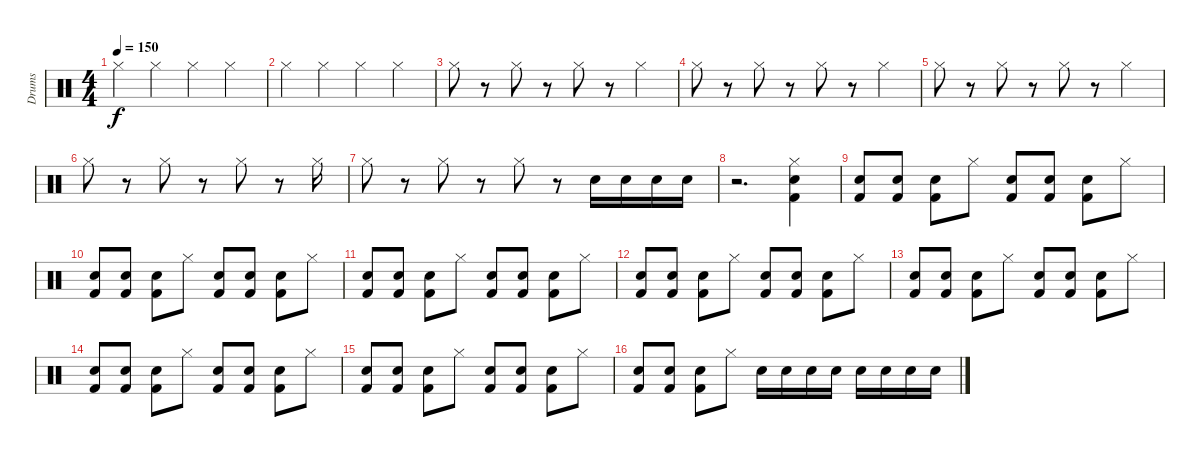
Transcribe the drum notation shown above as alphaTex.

\track ("Drums" "Drums") {instrument percussion}
\staff {score}
\articulation defaults
\ts (4 4)
\tempo 150
\clef neutral
\ks c "Hi-Hat (closed)".4{dy f} "Hi-Hat (closed)".4 "Hi-Hat (closed)".4 "Hi-Hat (closed)".4
|
"Hi-Hat (closed)".4 "Hi-Hat (closed)".4 "Hi-Hat (closed)".4 "Hi-Hat (closed)".4 |
"Hi-Hat (closed)".8 r.8 "Hi-Hat (closed)".8 r.8 "Hi-Hat (closed)".8 r.8 "Hi-Hat (closed)".4 |
"Hi-Hat (closed)".8 r.8 "Hi-Hat (closed)".8 r.8 "Hi-Hat (closed)".8 r.8 "Hi-Hat (closed)".4 |
"Hi-Hat (closed)".8 r.8 "Hi-Hat (closed)".8 r.8 "Hi-Hat (closed)".8 r.8 "Hi-Hat (closed)".4 |
"Hi-Hat (closed)".8 r.8 "Hi-Hat (closed)".8 r.8 "Hi-Hat (closed)".8 r.8 "Hi-Hat (closed)".16 |
"Hi-Hat (closed)".8 r.8 "Hi-Hat (closed)".8 r.8 "Hi-Hat (closed)".8 r.8 "Snare (hit) 2".16{volume 13} "Snare (hit) 2".16 "Snare (hit) 2".16 "Snare (hit) 2".16 |
r.2{d} ("Hi-Hat (closed)" "Snare (hit) 2" "Kick (hit) 2").4 |
("Snare (hit) 2" "Kick (hit) 2").8 ("Snare (hit) 2" "Kick (hit) 2").8 ("Snare (hit) 2" "Kick (hit) 2").8 "Hi-Hat (closed)".8 ("Snare (hit) 2" "Kick (hit) 2").8 ("Snare (hit) 2" "Kick (hit) 2").8 ("Snare (hit) 2" "Kick (hit) 2").8 "Hi-Hat (closed)".8 |
("Snare (hit) 2" "Kick (hit) 2").8 ("Snare (hit) 2" "Kick (hit) 2").8 ("Snare (hit) 2" "Kick (hit) 2").8 "Hi-Hat (closed)".8 ("Snare (hit) 2" "Kick (hit) 2").8 ("Snare (hit) 2" "Kick (hit) 2").8 ("Snare (hit) 2" "Kick (hit) 2").8 "Hi-Hat (closed)".8 |
("Snare (hit) 2" "Kick (hit) 2").8 ("Snare (hit) 2" "Kick (hit) 2").8 ("Snare (hit) 2" "Kick (hit) 2").8 "Hi-Hat (closed)".8 ("Snare (hit) 2" "Kick (hit) 2").8 ("Snare (hit) 2" "Kick (hit) 2").8 ("Snare (hit) 2" "Kick (hit) 2").8 "Hi-Hat (closed)".8 |
("Snare (hit) 2" "Kick (hit) 2").8 ("Snare (hit) 2" "Kick (hit) 2").8 ("Snare (hit) 2" "Kick (hit) 2").8 "Hi-Hat (closed)".8 ("Snare (hit) 2" "Kick (hit) 2").8 ("Snare (hit) 2" "Kick (hit) 2").8 ("Snare (hit) 2" "Kick (hit) 2").8 "Hi-Hat (closed)".8 |
("Snare (hit) 2" "Kick (hit) 2").8 ("Snare (hit) 2" "Kick (hit) 2").8 ("Snare (hit) 2" "Kick (hit) 2").8 "Hi-Hat (closed)".8 ("Snare (hit) 2" "Kick (hit) 2").8 ("Snare (hit) 2" "Kick (hit) 2").8 ("Snare (hit) 2" "Kick (hit) 2").8 "Hi-Hat (closed)".8 |
("Snare (hit) 2" "Kick (hit) 2").8 ("Snare (hit) 2" "Kick (hit) 2").8 ("Snare (hit) 2" "Kick (hit) 2").8 "Hi-Hat (closed)".8 ("Snare (hit) 2" "Kick (hit) 2").8 ("Snare (hit) 2" "Kick (hit) 2").8 ("Snare (hit) 2" "Kick (hit) 2").8 "Hi-Hat (closed)".8 |
("Snare (hit) 2" "Kick (hit) 2").8 ("Snare (hit) 2" "Kick (hit) 2").8 ("Snare (hit) 2" "Kick (hit) 2").8 "Hi-Hat (closed)".8 ("Snare (hit) 2" "Kick (hit) 2").8 ("Snare (hit) 2" "Kick (hit) 2").8 ("Snare (hit) 2" "Kick (hit) 2").8 "Hi-Hat (closed)".8 |
("Snare (hit) 2" "Kick (hit) 2").8 ("Snare (hit) 2" "Kick (hit) 2").8 ("Snare (hit) 2" "Kick (hit) 2").8 "Hi-Hat (closed)".8 "Snare (hit) 2".16 "Snare (hit) 2".16 "Snare (hit) 2".16 "Snare (hit) 2".16 "Snare (hit) 2".16 "Snare (hit) 2".16 "Snare (hit) 2".16 "Snare (hit) 2".16
